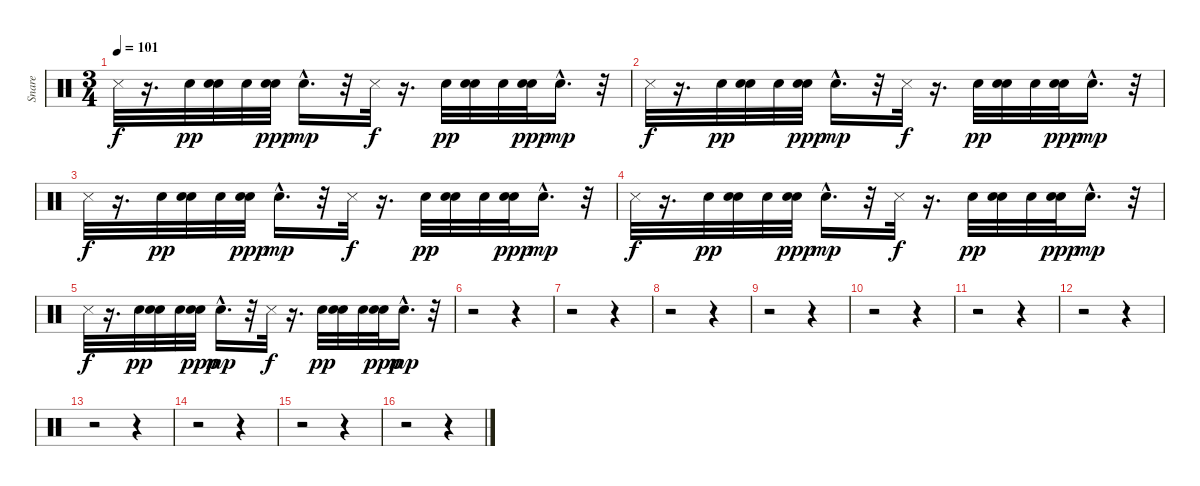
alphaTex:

\track ("Snare" "Snare") {instrument percussion}
\staff {score}
\articulation defaults
\ts (3 4)
\tempo 101
\clef neutral
\ks c "Metronome (hit)".32{dy f}
r.16{d} "Snare (hit) 2".32{dy pp} ("Snare (hit) 2" "Snare (hit) 2").32 "Snare (hit) 2".32 ("Snare (hit) 2" "Snare (hit) 2").32{dy ppp} "Snare (hit) 2"{hac}.16{d dy mp} r.32 "Metronome (hit)".32{dy f} r.16{d} "Snare (hit) 2".32{dy pp} ("Snare (hit) 2" "Snare (hit) 2").32 "Snare (hit) 2".32 ("Snare (hit) 2" "Snare (hit) 2").32{dy ppp} "Snare (hit) 2"{hac}.16{d dy mp} r.32 |
"Metronome (hit)".32{dy f} r.16{d} "Snare (hit) 2".32{dy pp} ("Snare (hit) 2" "Snare (hit) 2").32 "Snare (hit) 2".32 ("Snare (hit) 2" "Snare (hit) 2").32{dy ppp} "Snare (hit) 2"{hac}.16{d dy mp} r.32 "Metronome (hit)".32{dy f} r.16{d} "Snare (hit) 2".32{dy pp} ("Snare (hit) 2" "Snare (hit) 2").32 "Snare (hit) 2".32 ("Snare (hit) 2" "Snare (hit) 2").32{dy ppp} "Snare (hit) 2"{hac}.16{d dy mp} r.32 |
"Metronome (hit)".32{dy f} r.16{d} "Snare (hit) 2".32{dy pp} ("Snare (hit) 2" "Snare (hit) 2").32 "Snare (hit) 2".32 ("Snare (hit) 2" "Snare (hit) 2").32{dy ppp} "Snare (hit) 2"{hac}.16{d dy mp} r.32 "Metronome (hit)".32{dy f} r.16{d} "Snare (hit) 2".32{dy pp} ("Snare (hit) 2" "Snare (hit) 2").32 "Snare (hit) 2".32 ("Snare (hit) 2" "Snare (hit) 2").32{dy ppp} "Snare (hit) 2"{hac}.16{d dy mp} r.32 |
"Metronome (hit)".32{dy f} r.16{d} "Snare (hit) 2".32{dy pp} ("Snare (hit) 2" "Snare (hit) 2").32 "Snare (hit) 2".32 ("Snare (hit) 2" "Snare (hit) 2").32{dy ppp} "Snare (hit) 2"{hac}.16{d dy mp} r.32 "Metronome (hit)".32{dy f} r.16{d} "Snare (hit) 2".32{dy pp} ("Snare (hit) 2" "Snare (hit) 2").32 "Snare (hit) 2".32 ("Snare (hit) 2" "Snare (hit) 2").32{dy ppp} "Snare (hit) 2"{hac}.16{d dy mp} r.32 |
"Metronome (hit)".32{dy f} r.16{d} "Snare (hit) 2".32{dy pp} ("Snare (hit) 2" "Snare (hit) 2").32 "Snare (hit) 2".32 ("Snare (hit) 2" "Snare (hit) 2").32{dy ppp} "Snare (hit) 2"{hac}.16{d dy mp} r.32 "Metronome (hit)".32{dy f} r.16{d} "Snare (hit) 2".32{dy pp} ("Snare (hit) 2" "Snare (hit) 2").32 "Snare (hit) 2".32 ("Snare (hit) 2" "Snare (hit) 2").32{dy ppp} "Snare (hit) 2"{hac}.16{d dy mp} r.32 |
r.2 r.4 |
r.2 r.4 |
r.2 r.4 |
r.2 r.4 |
r.2 r.4 |
r.2 r.4 |
r.2 r.4 |
r.2 r.4 |
r.2 r.4 |
r.2 r.4 |
r.2 r.4
